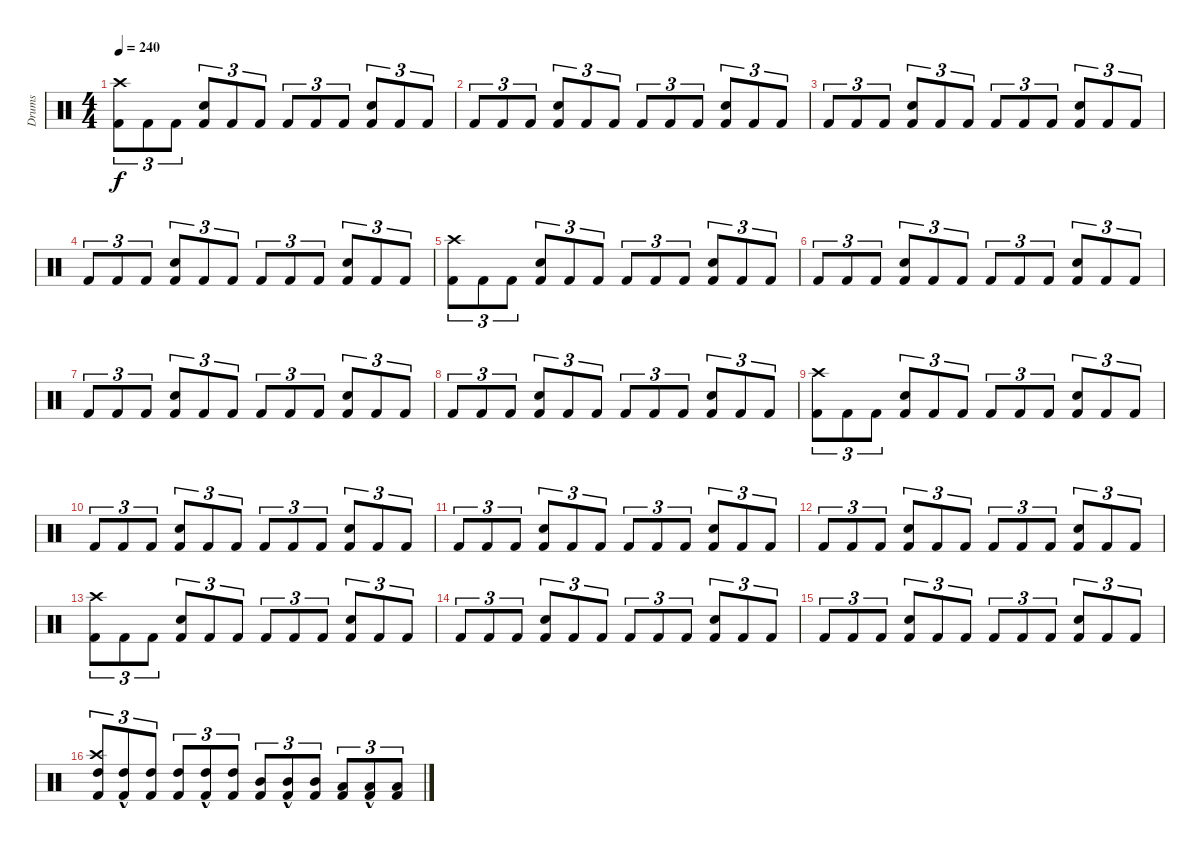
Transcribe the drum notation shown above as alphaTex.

\track ("Drums" "Drums") {instrument percussion}
\staff {score}
\articulation defaults
\ts (4 4)
\tempo 240
\clef neutral
\ks c
("Kick (hit) 2" "Crash high (hit)").8{tu (3 2) dy f} "Kick (hit) 2".8{tu (3 2)} "Kick (hit) 2".8{tu (3 2)} ("Kick (hit) 2" "Electric Snare (hit)").8{tu (3 2)} "Kick (hit) 2".8{tu (3 2)} "Kick (hit) 2".8{tu (3 2)} "Kick (hit) 2".8{tu (3 2)} "Kick (hit) 2".8{tu (3 2)} "Kick (hit) 2".8{tu (3 2)} ("Kick (hit) 2" "Electric Snare (hit)").8{tu (3 2)} "Kick (hit) 2".8{tu (3 2)} "Kick (hit) 2".8{tu (3 2)} |
"Kick (hit) 2".8{tu (3 2)} "Kick (hit) 2".8{tu (3 2)} "Kick (hit) 2".8{tu (3 2)} ("Kick (hit) 2" "Electric Snare (hit)").8{tu (3 2)} "Kick (hit) 2".8{tu (3 2)} "Kick (hit) 2".8{tu (3 2)} "Kick (hit) 2".8{tu (3 2)} "Kick (hit) 2".8{tu (3 2)} "Kick (hit) 2".8{tu (3 2)} ("Kick (hit) 2" "Electric Snare (hit)").8{tu (3 2)} "Kick (hit) 2".8{tu (3 2)} "Kick (hit) 2".8{tu (3 2)} |
"Kick (hit) 2".8{tu (3 2)} "Kick (hit) 2".8{tu (3 2)} "Kick (hit) 2".8{tu (3 2)} ("Kick (hit) 2" "Electric Snare (hit)").8{tu (3 2)} "Kick (hit) 2".8{tu (3 2)} "Kick (hit) 2".8{tu (3 2)} "Kick (hit) 2".8{tu (3 2)} "Kick (hit) 2".8{tu (3 2)} "Kick (hit) 2".8{tu (3 2)} ("Kick (hit) 2" "Electric Snare (hit)").8{tu (3 2)} "Kick (hit) 2".8{tu (3 2)} "Kick (hit) 2".8{tu (3 2)} |
"Kick (hit) 2".8{tu (3 2)} "Kick (hit) 2".8{tu (3 2)} "Kick (hit) 2".8{tu (3 2)} ("Kick (hit) 2" "Electric Snare (hit)").8{tu (3 2)} "Kick (hit) 2".8{tu (3 2)} "Kick (hit) 2".8{tu (3 2)} "Kick (hit) 2".8{tu (3 2)} "Kick (hit) 2".8{tu (3 2)} "Kick (hit) 2".8{tu (3 2)} ("Kick (hit) 2" "Electric Snare (hit)").8{tu (3 2)} "Kick (hit) 2".8{tu (3 2)} "Kick (hit) 2".8{tu (3 2)} |
("Kick (hit) 2" "Crash high (hit)").8{tu (3 2)} "Kick (hit) 2".8{tu (3 2)} "Kick (hit) 2".8{tu (3 2)} ("Kick (hit) 2" "Electric Snare (hit)").8{tu (3 2)} "Kick (hit) 2".8{tu (3 2)} "Kick (hit) 2".8{tu (3 2)} "Kick (hit) 2".8{tu (3 2)} "Kick (hit) 2".8{tu (3 2)} "Kick (hit) 2".8{tu (3 2)} ("Kick (hit) 2" "Electric Snare (hit)").8{tu (3 2)} "Kick (hit) 2".8{tu (3 2)} "Kick (hit) 2".8{tu (3 2)} |
"Kick (hit) 2".8{tu (3 2)} "Kick (hit) 2".8{tu (3 2)} "Kick (hit) 2".8{tu (3 2)} ("Kick (hit) 2" "Electric Snare (hit)").8{tu (3 2)} "Kick (hit) 2".8{tu (3 2)} "Kick (hit) 2".8{tu (3 2)} "Kick (hit) 2".8{tu (3 2)} "Kick (hit) 2".8{tu (3 2)} "Kick (hit) 2".8{tu (3 2)} ("Kick (hit) 2" "Electric Snare (hit)").8{tu (3 2)} "Kick (hit) 2".8{tu (3 2)} "Kick (hit) 2".8{tu (3 2)} |
"Kick (hit) 2".8{tu (3 2)} "Kick (hit) 2".8{tu (3 2)} "Kick (hit) 2".8{tu (3 2)} ("Kick (hit) 2" "Electric Snare (hit)").8{tu (3 2)} "Kick (hit) 2".8{tu (3 2)} "Kick (hit) 2".8{tu (3 2)} "Kick (hit) 2".8{tu (3 2)} "Kick (hit) 2".8{tu (3 2)} "Kick (hit) 2".8{tu (3 2)} ("Kick (hit) 2" "Electric Snare (hit)").8{tu (3 2)} "Kick (hit) 2".8{tu (3 2)} "Kick (hit) 2".8{tu (3 2)} |
"Kick (hit) 2".8{tu (3 2)} "Kick (hit) 2".8{tu (3 2)} "Kick (hit) 2".8{tu (3 2)} ("Kick (hit) 2" "Electric Snare (hit)").8{tu (3 2)} "Kick (hit) 2".8{tu (3 2)} "Kick (hit) 2".8{tu (3 2)} "Kick (hit) 2".8{tu (3 2)} "Kick (hit) 2".8{tu (3 2)} "Kick (hit) 2".8{tu (3 2)} ("Kick (hit) 2" "Electric Snare (hit)").8{tu (3 2)} "Kick (hit) 2".8{tu (3 2)} "Kick (hit) 2".8{tu (3 2)} |
("Kick (hit) 2" "Crash high (hit)").8{tu (3 2)} "Kick (hit) 2".8{tu (3 2)} "Kick (hit) 2".8{tu (3 2)} ("Kick (hit) 2" "Electric Snare (hit)").8{tu (3 2)} "Kick (hit) 2".8{tu (3 2)} "Kick (hit) 2".8{tu (3 2)} "Kick (hit) 2".8{tu (3 2)} "Kick (hit) 2".8{tu (3 2)} "Kick (hit) 2".8{tu (3 2)} ("Kick (hit) 2" "Electric Snare (hit)").8{tu (3 2)} "Kick (hit) 2".8{tu (3 2)} "Kick (hit) 2".8{tu (3 2)} |
"Kick (hit) 2".8{tu (3 2)} "Kick (hit) 2".8{tu (3 2)} "Kick (hit) 2".8{tu (3 2)} ("Kick (hit) 2" "Electric Snare (hit)").8{tu (3 2)} "Kick (hit) 2".8{tu (3 2)} "Kick (hit) 2".8{tu (3 2)} "Kick (hit) 2".8{tu (3 2)} "Kick (hit) 2".8{tu (3 2)} "Kick (hit) 2".8{tu (3 2)} ("Kick (hit) 2" "Electric Snare (hit)").8{tu (3 2)} "Kick (hit) 2".8{tu (3 2)} "Kick (hit) 2".8{tu (3 2)} |
"Kick (hit) 2".8{tu (3 2)} "Kick (hit) 2".8{tu (3 2)} "Kick (hit) 2".8{tu (3 2)} ("Kick (hit) 2" "Electric Snare (hit)").8{tu (3 2)} "Kick (hit) 2".8{tu (3 2)} "Kick (hit) 2".8{tu (3 2)} "Kick (hit) 2".8{tu (3 2)} "Kick (hit) 2".8{tu (3 2)} "Kick (hit) 2".8{tu (3 2)} ("Kick (hit) 2" "Electric Snare (hit)").8{tu (3 2)} "Kick (hit) 2".8{tu (3 2)} "Kick (hit) 2".8{tu (3 2)} |
"Kick (hit) 2".8{tu (3 2)} "Kick (hit) 2".8{tu (3 2)} "Kick (hit) 2".8{tu (3 2)} ("Kick (hit) 2" "Electric Snare (hit)").8{tu (3 2)} "Kick (hit) 2".8{tu (3 2)} "Kick (hit) 2".8{tu (3 2)} "Kick (hit) 2".8{tu (3 2)} "Kick (hit) 2".8{tu (3 2)} "Kick (hit) 2".8{tu (3 2)} ("Kick (hit) 2" "Electric Snare (hit)").8{tu (3 2)} "Kick (hit) 2".8{tu (3 2)} "Kick (hit) 2".8{tu (3 2)} |
("Kick (hit) 2" "Crash high (hit)").8{tu (3 2)} "Kick (hit) 2".8{tu (3 2)} "Kick (hit) 2".8{tu (3 2)} ("Kick (hit) 2" "Electric Snare (hit)").8{tu (3 2)} "Kick (hit) 2".8{tu (3 2)} "Kick (hit) 2".8{tu (3 2)} "Kick (hit) 2".8{tu (3 2)} "Kick (hit) 2".8{tu (3 2)} "Kick (hit) 2".8{tu (3 2)} ("Kick (hit) 2" "Electric Snare (hit)").8{tu (3 2)} "Kick (hit) 2".8{tu (3 2)} "Kick (hit) 2".8{tu (3 2)} |
"Kick (hit) 2".8{tu (3 2)} "Kick (hit) 2".8{tu (3 2)} "Kick (hit) 2".8{tu (3 2)} ("Kick (hit) 2" "Electric Snare (hit)").8{tu (3 2)} "Kick (hit) 2".8{tu (3 2)} "Kick (hit) 2".8{tu (3 2)} "Kick (hit) 2".8{tu (3 2)} "Kick (hit) 2".8{tu (3 2)} "Kick (hit) 2".8{tu (3 2)} ("Kick (hit) 2" "Electric Snare (hit)").8{tu (3 2)} "Kick (hit) 2".8{tu (3 2)} "Kick (hit) 2".8{tu (3 2)} |
"Kick (hit) 2".8{tu (3 2)} "Kick (hit) 2".8{tu (3 2)} "Kick (hit) 2".8{tu (3 2)} ("Kick (hit) 2" "Electric Snare (hit)").8{tu (3 2)} "Kick (hit) 2".8{tu (3 2)} "Kick (hit) 2".8{tu (3 2)} "Kick (hit) 2".8{tu (3 2)} "Kick (hit) 2".8{tu (3 2)} "Kick (hit) 2".8{tu (3 2)} ("Kick (hit) 2" "Electric Snare (hit)").8{tu (3 2)} "Kick (hit) 2".8{tu (3 2)} "Kick (hit) 2".8{tu (3 2)} |
("Kick (hit) 2" "High Tom (hit)" "Crash high (hit)").8{tu (3 2)} ("Kick (hit) 2"{hac} "High Tom (hit)"{hac}).8{tu (3 2)} ("Kick (hit) 2" "High Tom (hit)").8{tu (3 2)} ("Kick (hit) 2" "High Tom (hit)").8{tu (3 2)} ("Kick (hit) 2"{hac} "High Tom (hit)"{hac}).8{tu (3 2)} ("Kick (hit) 2" "High Tom (hit)").8{tu (3 2)} ("Kick (hit) 2" "Mid Tom (hit)").8{tu (3 2)} ("Kick (hit) 2"{hac} "Mid Tom (hit)"{hac}).8{tu (3 2)} ("Kick (hit) 2" "Mid Tom (hit)").8{tu (3 2)} ("Kick (hit) 2" "Low Tom (hit)").8{tu (3 2)} ("Kick (hit) 2"{hac} "Low Tom (hit)"{hac}).8{tu (3 2)} ("Kick (hit) 2" "Low Tom (hit)").8{tu (3 2)}
